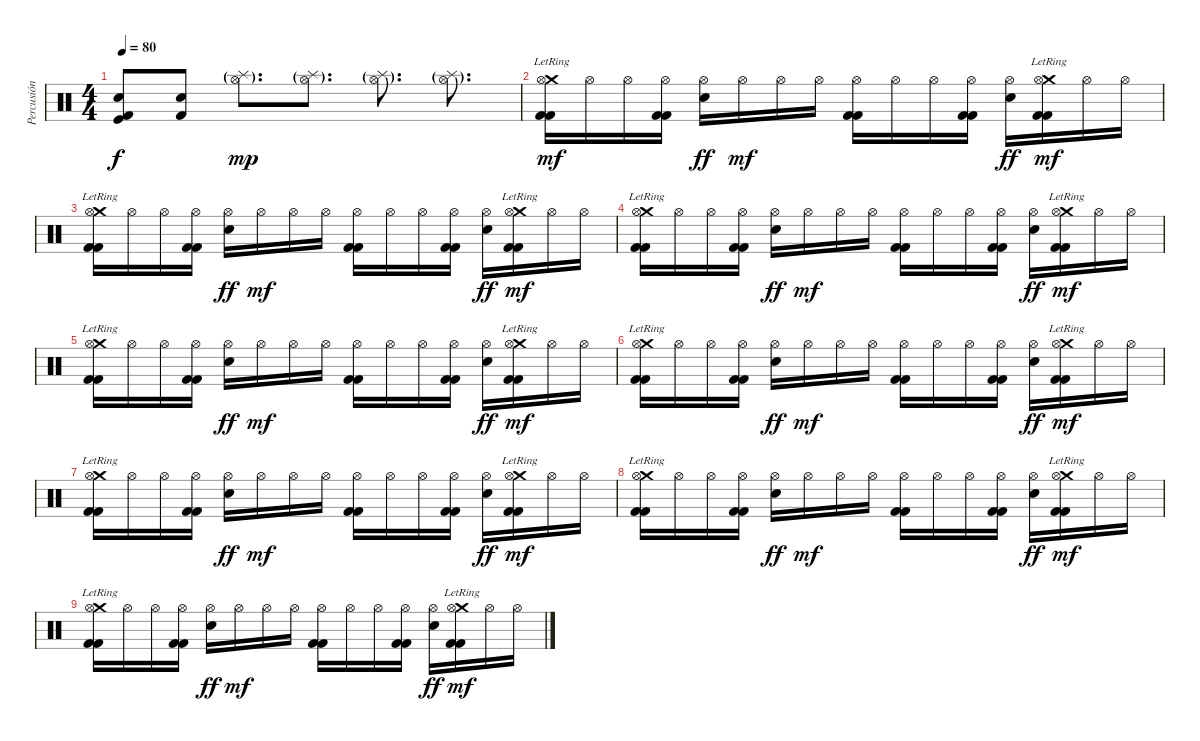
\track ("Percusión" "Percusión") {instrument percussion}
\staff {score}
\articulation defaults
\ts (4 4)
\tempo 80
\clef neutral
\ks c
("Kick (hit)" "Kick (hit) 2" "Snare (hit) 2").8{dy f} ("Kick (hit) 2" "Electric Snare (hit)").8 ("Splash (hit)"{g} "Hi-Hat (open)"{g}).8{d dy mp} ("Splash (hit)"{g} "Hi-Hat (open)"{g}).8{d} ("Splash (hit)"{g} "Hi-Hat (open)"{g}).8{d} ("Splash (hit)"{g} "Hi-Hat (open)"{g}).8{d} |
("Crash medium (hit)"{lr} "Hi-Hat (open)" "Kick (hit) 2" "Kick (hit) 2").16{dy mf} "Hi-Hat (open)".16 "Hi-Hat (open)".16 ("Hi-Hat (open)" "Kick (hit) 2" "Kick (hit) 2").16 ("Hi-Hat (open)" "Snare (hit) 2").16{dy ff} "Hi-Hat (open)".16{dy mf} "Hi-Hat (open)".16 "Hi-Hat (open)".16 ("Hi-Hat (open)" "Kick (hit) 2" "Kick (hit) 2").16 "Hi-Hat (open)".16 "Hi-Hat (open)".16 ("Hi-Hat (open)" "Kick (hit) 2" "Kick (hit) 2").16 ("Hi-Hat (open)" "Snare (hit) 2").16{dy ff} ("Crash medium (hit)"{lr} "Hi-Hat (open)" "Kick (hit) 2" "Kick (hit) 2").16{dy mf} "Hi-Hat (open)".16 "Hi-Hat (open)".16 |
("Crash medium (hit)"{lr} "Hi-Hat (open)" "Kick (hit) 2" "Kick (hit) 2").16 "Hi-Hat (open)".16 "Hi-Hat (open)".16 ("Hi-Hat (open)" "Kick (hit) 2" "Kick (hit) 2").16 ("Hi-Hat (open)" "Snare (hit) 2").16{dy ff} "Hi-Hat (open)".16{dy mf} "Hi-Hat (open)".16 "Hi-Hat (open)".16 ("Hi-Hat (open)" "Kick (hit) 2" "Kick (hit) 2").16 "Hi-Hat (open)".16 "Hi-Hat (open)".16 ("Hi-Hat (open)" "Kick (hit) 2" "Kick (hit) 2").16 ("Hi-Hat (open)" "Snare (hit) 2").16{dy ff} ("Crash medium (hit)"{lr} "Hi-Hat (open)" "Kick (hit) 2" "Kick (hit) 2").16{dy mf} "Hi-Hat (open)".16 "Hi-Hat (open)".16 |
("Crash medium (hit)"{lr} "Hi-Hat (open)" "Kick (hit) 2" "Kick (hit) 2").16 "Hi-Hat (open)".16 "Hi-Hat (open)".16 ("Hi-Hat (open)" "Kick (hit) 2" "Kick (hit) 2").16 ("Hi-Hat (open)" "Snare (hit) 2").16{dy ff} "Hi-Hat (open)".16{dy mf} "Hi-Hat (open)".16 "Hi-Hat (open)".16 ("Hi-Hat (open)" "Kick (hit) 2" "Kick (hit) 2").16 "Hi-Hat (open)".16 "Hi-Hat (open)".16 ("Hi-Hat (open)" "Kick (hit) 2" "Kick (hit) 2").16 ("Hi-Hat (open)" "Snare (hit) 2").16{dy ff} ("Crash medium (hit)"{lr} "Hi-Hat (open)" "Kick (hit) 2" "Kick (hit) 2").16{dy mf} "Hi-Hat (open)".16 "Hi-Hat (open)".16 |
("Crash medium (hit)"{lr} "Hi-Hat (open)" "Kick (hit) 2" "Kick (hit) 2").16 "Hi-Hat (open)".16 "Hi-Hat (open)".16 ("Hi-Hat (open)" "Kick (hit) 2" "Kick (hit) 2").16 ("Hi-Hat (open)" "Snare (hit) 2").16{dy ff} "Hi-Hat (open)".16{dy mf} "Hi-Hat (open)".16 "Hi-Hat (open)".16 ("Hi-Hat (open)" "Kick (hit) 2" "Kick (hit) 2").16 "Hi-Hat (open)".16 "Hi-Hat (open)".16 ("Hi-Hat (open)" "Kick (hit) 2" "Kick (hit) 2").16 ("Hi-Hat (open)" "Snare (hit) 2").16{dy ff} ("Crash medium (hit)"{lr} "Hi-Hat (open)" "Kick (hit) 2" "Kick (hit) 2").16{dy mf} "Hi-Hat (open)".16 "Hi-Hat (open)".16 |
("Crash medium (hit)"{lr} "Hi-Hat (open)" "Kick (hit) 2" "Kick (hit) 2").16{volume 0} "Hi-Hat (open)".16 "Hi-Hat (open)".16 ("Hi-Hat (open)" "Kick (hit) 2" "Kick (hit) 2").16 ("Hi-Hat (open)" "Snare (hit) 2").16{dy ff} "Hi-Hat (open)".16{dy mf} "Hi-Hat (open)".16 "Hi-Hat (open)".16 ("Hi-Hat (open)" "Kick (hit) 2" "Kick (hit) 2").16 "Hi-Hat (open)".16 "Hi-Hat (open)".16 ("Hi-Hat (open)" "Kick (hit) 2" "Kick (hit) 2").16 ("Hi-Hat (open)" "Snare (hit) 2").16{dy ff} ("Crash medium (hit)"{lr} "Hi-Hat (open)" "Kick (hit) 2" "Kick (hit) 2").16{dy mf} "Hi-Hat (open)".16 "Hi-Hat (open)".16 |
("Crash medium (hit)"{lr} "Hi-Hat (open)" "Kick (hit) 2" "Kick (hit) 2").16 "Hi-Hat (open)".16 "Hi-Hat (open)".16 ("Hi-Hat (open)" "Kick (hit) 2" "Kick (hit) 2").16 ("Hi-Hat (open)" "Snare (hit) 2").16{dy ff} "Hi-Hat (open)".16{dy mf} "Hi-Hat (open)".16 "Hi-Hat (open)".16 ("Hi-Hat (open)" "Kick (hit) 2" "Kick (hit) 2").16 "Hi-Hat (open)".16 "Hi-Hat (open)".16 ("Hi-Hat (open)" "Kick (hit) 2" "Kick (hit) 2").16 ("Hi-Hat (open)" "Snare (hit) 2").16{dy ff} ("Crash medium (hit)"{lr} "Hi-Hat (open)" "Kick (hit) 2" "Kick (hit) 2").16{dy mf} "Hi-Hat (open)".16 "Hi-Hat (open)".16 |
("Crash medium (hit)"{lr} "Hi-Hat (open)" "Kick (hit) 2" "Kick (hit) 2").16 "Hi-Hat (open)".16 "Hi-Hat (open)".16 ("Hi-Hat (open)" "Kick (hit) 2" "Kick (hit) 2").16 ("Hi-Hat (open)" "Snare (hit) 2").16{dy ff} "Hi-Hat (open)".16{dy mf} "Hi-Hat (open)".16 "Hi-Hat (open)".16 ("Hi-Hat (open)" "Kick (hit) 2" "Kick (hit) 2").16 "Hi-Hat (open)".16 "Hi-Hat (open)".16 ("Hi-Hat (open)" "Kick (hit) 2" "Kick (hit) 2").16 ("Hi-Hat (open)" "Snare (hit) 2").16{dy ff} ("Crash medium (hit)"{lr} "Hi-Hat (open)" "Kick (hit) 2" "Kick (hit) 2").16{dy mf} "Hi-Hat (open)".16 "Hi-Hat (open)".16 |
("Crash medium (hit)"{lr} "Hi-Hat (open)" "Kick (hit) 2" "Kick (hit) 2").16 "Hi-Hat (open)".16 "Hi-Hat (open)".16 ("Hi-Hat (open)" "Kick (hit) 2" "Kick (hit) 2").16 ("Hi-Hat (open)" "Snare (hit) 2").16{dy ff} "Hi-Hat (open)".16{dy mf} "Hi-Hat (open)".16 "Hi-Hat (open)".16 ("Hi-Hat (open)" "Kick (hit) 2" "Kick (hit) 2").16 "Hi-Hat (open)".16 "Hi-Hat (open)".16 ("Hi-Hat (open)" "Kick (hit) 2" "Kick (hit) 2").16 ("Hi-Hat (open)" "Snare (hit) 2").16{dy ff} ("Crash medium (hit)"{lr} "Hi-Hat (open)" "Kick (hit) 2" "Kick (hit) 2").16{dy mf} "Hi-Hat (open)".16 "Hi-Hat (open)".16
